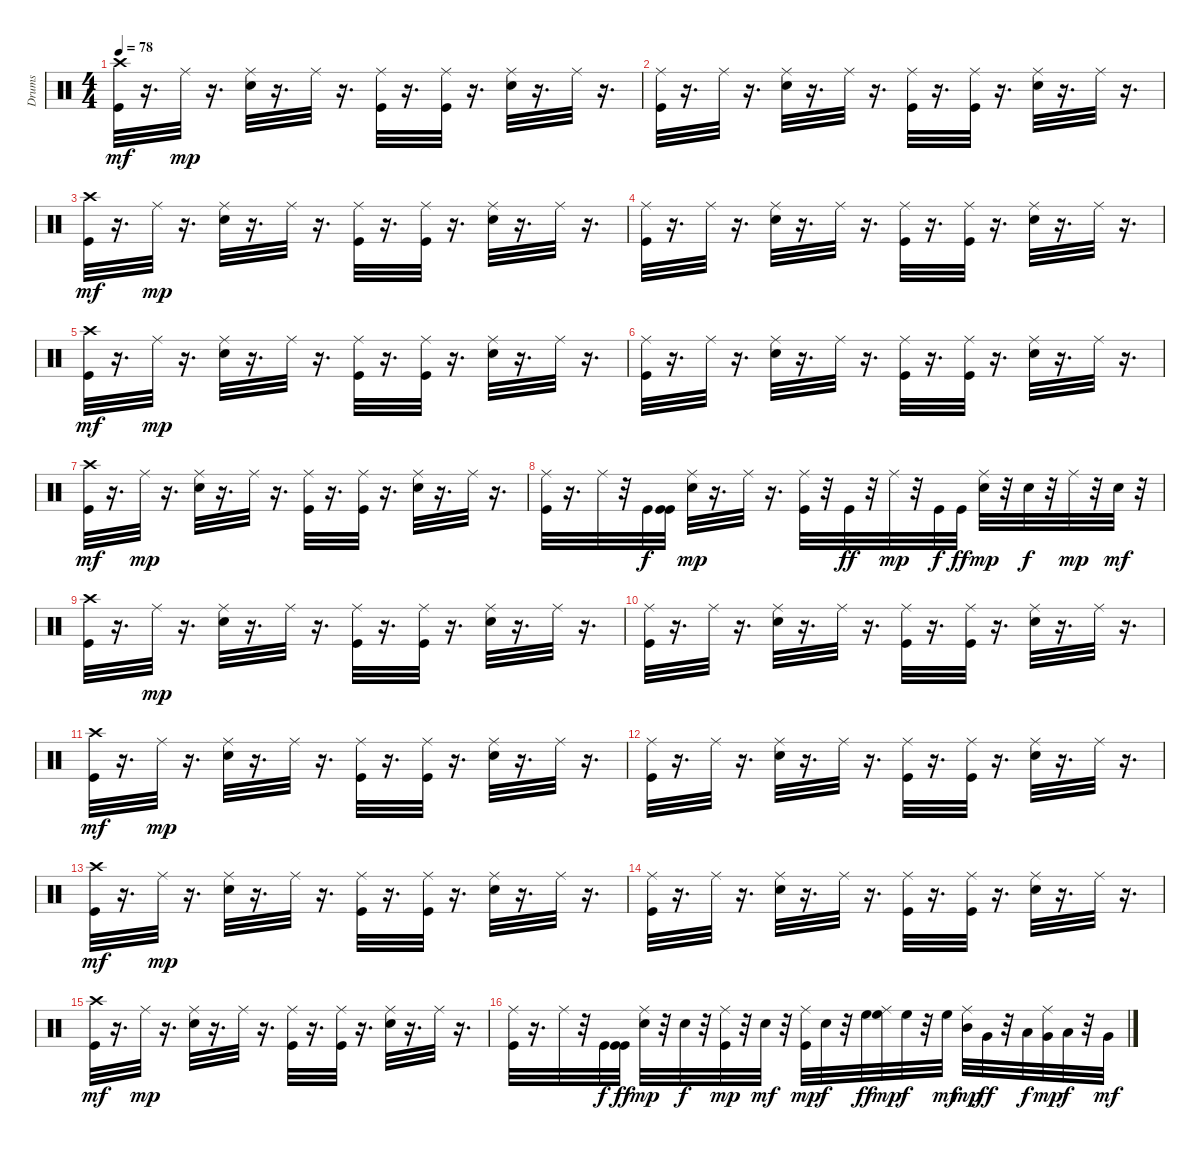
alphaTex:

\track ("Drums" "Drums") {instrument percussion}
\staff {score}
\articulation defaults
\ts (4 4)
\tempo 78
\clef neutral
\ks c
("Kick (hit)" "Crash high (hit)").32{dy mf} r.16{d} "Ride (middle)".32{dy mp} r.16{d} ("Snare (hit) 2" "Ride (middle)").32 r.16{d} "Ride (middle)".32 r.16{d} ("Kick (hit)" "Ride (middle)").32 r.16{d} ("Kick (hit)" "Ride (middle)").32 r.16{d} ("Snare (hit) 2" "Ride (middle)").32 r.16{d} "Ride (middle)".32 r.16{d} |
("Kick (hit)" "Ride (middle)").32 r.16{d} "Ride (middle)".32 r.16{d} ("Snare (hit) 2" "Ride (middle)").32 r.16{d} "Ride (middle)".32 r.16{d} ("Kick (hit)" "Ride (middle)").32 r.16{d} ("Kick (hit)" "Ride (middle)").32 r.16{d} ("Snare (hit) 2" "Ride (middle)").32 r.16{d} "Ride (middle)".32 r.16{d} |
("Kick (hit)" "Crash high (hit)").32{dy mf} r.16{d} "Ride (middle)".32{dy mp} r.16{d} ("Snare (hit) 2" "Ride (middle)").32 r.16{d} "Ride (middle)".32 r.16{d} ("Kick (hit)" "Ride (middle)").32 r.16{d} ("Kick (hit)" "Ride (middle)").32 r.16{d} ("Snare (hit) 2" "Ride (middle)").32 r.16{d} "Ride (middle)".32 r.16{d} |
("Kick (hit)" "Ride (middle)").32 r.16{d} "Ride (middle)".32 r.16{d} ("Snare (hit) 2" "Ride (middle)").32 r.16{d} "Ride (middle)".32 r.16{d} ("Kick (hit)" "Ride (middle)").32 r.16{d} ("Kick (hit)" "Ride (middle)").32 r.16{d} ("Snare (hit) 2" "Ride (middle)").32 r.16{d} "Ride (middle)".32 r.16{d} |
("Kick (hit)" "Crash high (hit)").32{dy mf} r.16{d} "Ride (middle)".32{dy mp} r.16{d} ("Snare (hit) 2" "Ride (middle)").32 r.16{d} "Ride (middle)".32 r.16{d} ("Kick (hit)" "Ride (middle)").32 r.16{d} ("Kick (hit)" "Ride (middle)").32 r.16{d} ("Snare (hit) 2" "Ride (middle)").32 r.16{d} "Ride (middle)".32 r.16{d} |
("Kick (hit)" "Ride (middle)").32 r.16{d} "Ride (middle)".32 r.16{d} ("Snare (hit) 2" "Ride (middle)").32 r.16{d} "Ride (middle)".32 r.16{d} ("Kick (hit)" "Ride (middle)").32 r.16{d} ("Kick (hit)" "Ride (middle)").32 r.16{d} ("Snare (hit) 2" "Ride (middle)").32 r.16{d} "Ride (middle)".32 r.16{d} |
("Kick (hit)" "Crash high (hit)").32{dy mf} r.16{d} "Ride (middle)".32{dy mp} r.16{d} ("Snare (hit) 2" "Ride (middle)").32 r.16{d} "Ride (middle)".32 r.16{d} ("Kick (hit)" "Ride (middle)").32 r.16{d} ("Kick (hit)" "Ride (middle)").32 r.16{d} ("Snare (hit) 2" "Ride (middle)").32 r.16{d} "Ride (middle)".32 r.16{d} |
("Kick (hit)" "Ride (middle)").32 r.16{d} "Ride (middle)".32 r.32 "Kick (hit)".32{dy f} ("Kick (hit)" "Kick (hit)").32 ("Snare (hit) 2" "Ride (middle)").32{dy mp} r.16{d} "Ride (middle)".32 r.16{d} ("Kick (hit)" "Ride (middle)").32 r.32 "Kick (hit)".32{dy ff} r.32 "Ride (middle)".32{dy mp} r.32 "Kick (hit)".32{dy f} "Kick (hit)".32{dy ff} ("Snare (hit) 2" "Ride (middle)").32{dy mp} r.32 "Snare (hit) 2".32{dy f} r.32 "Ride (middle)".32{dy mp} r.32 "Snare (hit) 2".32{dy mf} r.32 |
("Kick (hit)" "Crash high (hit)").32 r.16{d} "Ride (middle)".32{dy mp} r.16{d} ("Snare (hit) 2" "Ride (middle)").32 r.16{d} "Ride (middle)".32 r.16{d} ("Kick (hit)" "Ride (middle)").32 r.16{d} ("Kick (hit)" "Ride (middle)").32 r.16{d} ("Snare (hit) 2" "Ride (middle)").32 r.16{d} "Ride (middle)".32 r.16{d} |
("Kick (hit)" "Ride (middle)").32 r.16{d} "Ride (middle)".32 r.16{d} ("Snare (hit) 2" "Ride (middle)").32 r.16{d} "Ride (middle)".32 r.16{d} ("Kick (hit)" "Ride (middle)").32 r.16{d} ("Kick (hit)" "Ride (middle)").32 r.16{d} ("Snare (hit) 2" "Ride (middle)").32 r.16{d} "Ride (middle)".32 r.16{d} |
("Kick (hit)" "Crash high (hit)").32{dy mf} r.16{d} "Ride (middle)".32{dy mp} r.16{d} ("Snare (hit) 2" "Ride (middle)").32 r.16{d} "Ride (middle)".32 r.16{d} ("Kick (hit)" "Ride (middle)").32 r.16{d} ("Kick (hit)" "Ride (middle)").32 r.16{d} ("Snare (hit) 2" "Ride (middle)").32 r.16{d} "Ride (middle)".32 r.16{d} |
("Kick (hit)" "Ride (middle)").32 r.16{d} "Ride (middle)".32 r.16{d} ("Snare (hit) 2" "Ride (middle)").32 r.16{d} "Ride (middle)".32 r.16{d} ("Kick (hit)" "Ride (middle)").32 r.16{d} ("Kick (hit)" "Ride (middle)").32 r.16{d} ("Snare (hit) 2" "Ride (middle)").32 r.16{d} "Ride (middle)".32 r.16{d} |
("Kick (hit)" "Crash high (hit)").32{dy mf} r.16{d} "Ride (middle)".32{dy mp} r.16{d} ("Snare (hit) 2" "Ride (middle)").32 r.16{d} "Ride (middle)".32 r.16{d} ("Kick (hit)" "Ride (middle)").32 r.16{d} ("Kick (hit)" "Ride (middle)").32 r.16{d} ("Snare (hit) 2" "Ride (middle)").32 r.16{d} "Ride (middle)".32 r.16{d} |
("Kick (hit)" "Ride (middle)").32 r.16{d} "Ride (middle)".32 r.16{d} ("Snare (hit) 2" "Ride (middle)").32 r.16{d} "Ride (middle)".32 r.16{d} ("Kick (hit)" "Ride (middle)").32 r.16{d} ("Kick (hit)" "Ride (middle)").32 r.16{d} ("Snare (hit) 2" "Ride (middle)").32 r.16{d} "Ride (middle)".32 r.16{d} |
("Kick (hit)" "Crash high (hit)").32{dy mf} r.16{d} "Ride (middle)".32{dy mp} r.16{d} ("Snare (hit) 2" "Ride (middle)").32 r.16{d} "Ride (middle)".32 r.16{d} ("Kick (hit)" "Ride (middle)").32 r.16{d} ("Kick (hit)" "Ride (middle)").32 r.16{d} ("Snare (hit) 2" "Ride (middle)").32 r.16{d} "Ride (middle)".32 r.16{d} |
("Kick (hit)" "Ride (middle)").32 r.16{d} "Ride (middle)".32 r.32 "Kick (hit)".32{dy f} ("Kick (hit)" "Kick (hit)").32{dy ff} ("Snare (hit) 2" "Ride (middle)").32{dy mp} r.32 "Snare (hit) 2".32{dy f} r.32 ("Kick (hit)" "Ride (middle)").32{dy mp} r.32 "Snare (hit) 2".32{dy mf} r.32 ("Kick (hit)" "Ride (middle)").32{dy mp} "Snare (hit) 2".32{dy f} r.32 "High Floor Tom (hit)".32{dy ff} ("High Floor Tom (hit)" "Ride (middle)").32{dy mp} "High Floor Tom (hit)".32{dy f} r.32 "High Floor Tom (hit)".32{dy mf} ("Mid Tom (hit)" "Ride (middle)").32{dy mp} "Very Low Tom (hit)".32{dy ff} r.32 "Low Tom (hit)".32{dy f} ("Very Low Tom (hit)" "Ride (middle)").32{dy mp} "Low Tom (hit)".32{dy f} r.32 "Very Low Tom (hit)".32{dy mf}
